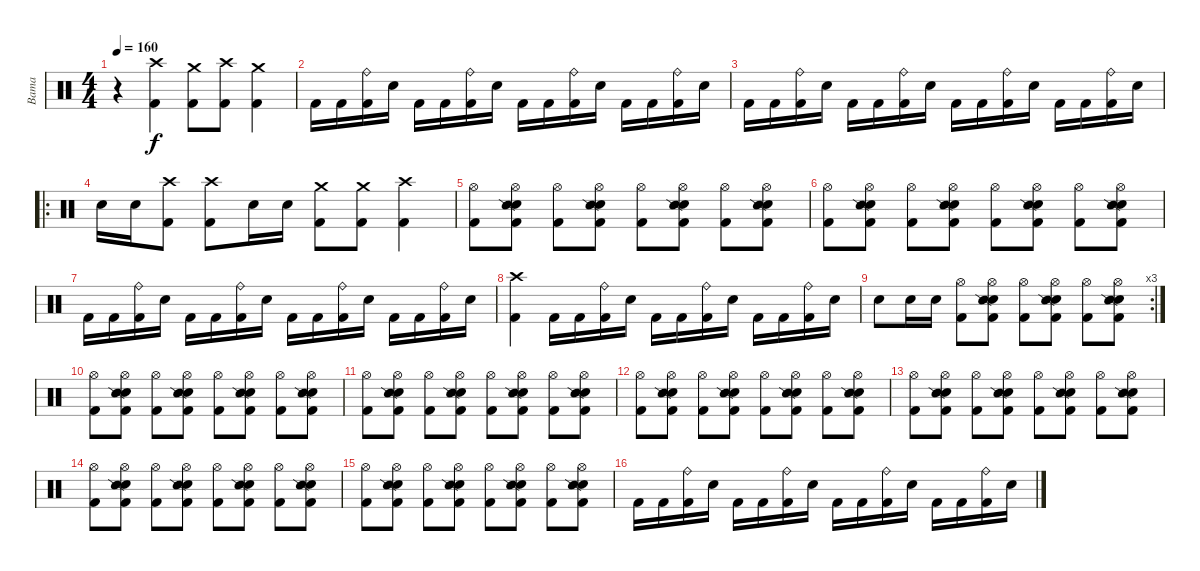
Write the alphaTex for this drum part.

\track ("Bama" "Bama") {instrument percussion}
\staff {score}
\articulation defaults
\ts (4 4)
\tempo 160
\clef neutral
\ks c
r.4{dy f} ("Crash high (hit)" "Kick (hit) 2").4 ("Crash medium (hit)" "Kick (hit) 2").8 ("Crash high (hit)" "Kick (hit) 2").8 ("Crash medium (hit)" "Kick (hit) 2").4 |
"Kick (hit) 2".16 "Kick (hit) 2".16 ("Ride (bell)" "Kick (hit) 2").16 "Electric Snare (hit)".16 "Kick (hit) 2".16 "Kick (hit) 2".16 ("Ride (bell)" "Kick (hit) 2").16 "Electric Snare (hit)".16 "Kick (hit) 2".16 "Kick (hit) 2".16 ("Ride (bell)" "Kick (hit) 2").16 "Electric Snare (hit)".16 "Kick (hit) 2".16 "Kick (hit) 2".16 ("Ride (bell)" "Kick (hit) 2").16 "Electric Snare (hit)".16 |
"Kick (hit) 2".16 "Kick (hit) 2".16 ("Ride (bell)" "Kick (hit) 2").16 "Electric Snare (hit)".16 "Kick (hit) 2".16 "Kick (hit) 2".16 ("Ride (bell)" "Kick (hit) 2").16 "Electric Snare (hit)".16 "Kick (hit) 2".16 "Kick (hit) 2".16 ("Ride (bell)" "Kick (hit) 2").16 "Electric Snare (hit)".16 "Kick (hit) 2".16 "Kick (hit) 2".16 ("Ride (bell)" "Kick (hit) 2").16 "Electric Snare (hit)".16 |
\ro "Electric Snare (hit)".16 "Electric Snare (hit)".16
("Crash high (hit)" "Kick (hit) 2").8 ("Crash high (hit)" "Kick (hit) 2").8 "Electric Snare (hit)".16 "Electric Snare (hit)".16 ("Crash medium (hit)" "Kick (hit) 2").8 ("Crash medium (hit)" "Kick (hit) 2").8 ("Crash high (hit)" "Kick (hit) 2").4 |
("Hi-Hat (open)" "Kick (hit) 2").8 ("Hi-Hat (open)" "Electric Snare (hit)" "Snare (side stick) 2" "Kick (hit) 2").8 ("Hi-Hat (open)" "Kick (hit) 2").8 ("Hi-Hat (open)" "Electric Snare (hit)" "Snare (side stick) 2" "Kick (hit) 2").8 ("Hi-Hat (open)" "Kick (hit) 2").8 ("Hi-Hat (open)" "Electric Snare (hit)" "Snare (side stick) 2" "Kick (hit) 2").8 ("Hi-Hat (open)" "Kick (hit) 2").8 ("Hi-Hat (open)" "Electric Snare (hit)" "Snare (side stick) 2" "Kick (hit) 2").8 |
("Hi-Hat (open)" "Kick (hit) 2").8 ("Hi-Hat (open)" "Electric Snare (hit)" "Snare (side stick) 2" "Kick (hit) 2").8 ("Hi-Hat (open)" "Kick (hit) 2").8 ("Hi-Hat (open)" "Electric Snare (hit)" "Snare (side stick) 2" "Kick (hit) 2").8 ("Hi-Hat (open)" "Kick (hit) 2").8 ("Hi-Hat (open)" "Electric Snare (hit)" "Snare (side stick) 2" "Kick (hit) 2").8 ("Hi-Hat (open)" "Kick (hit) 2").8 ("Hi-Hat (open)" "Electric Snare (hit)" "Snare (side stick) 2" "Kick (hit) 2").8 |
"Kick (hit) 2".16 "Kick (hit) 2".16 ("Ride (bell)" "Kick (hit) 2").16 "Electric Snare (hit)".16 "Kick (hit) 2".16 "Kick (hit) 2".16 ("Ride (bell)" "Kick (hit) 2").16 "Electric Snare (hit)".16 "Kick (hit) 2".16 "Kick (hit) 2".16 ("Ride (bell)" "Kick (hit) 2").16 "Electric Snare (hit)".16 "Kick (hit) 2".16 "Kick (hit) 2".16 ("Ride (bell)" "Kick (hit) 2").16 "Electric Snare (hit)".16 |
("Crash high (hit)" "Kick (hit) 2").4 "Kick (hit) 2".16 "Kick (hit) 2".16 ("Ride (bell)" "Kick (hit) 2").16 "Electric Snare (hit)".16 "Kick (hit) 2".16 "Kick (hit) 2".16 ("Ride (bell)" "Kick (hit) 2").16 "Electric Snare (hit)".16 "Kick (hit) 2".16 "Kick (hit) 2".16 ("Ride (bell)" "Kick (hit) 2").16 "Electric Snare (hit)".16 |
\rc 3 "Electric Snare (hit)".8 "Electric Snare (hit)".16 "Electric Snare (hit)".16
("Hi-Hat (open)" "Kick (hit) 2").8 ("Hi-Hat (open)" "Electric Snare (hit)" "Snare (side stick) 2" "Kick (hit) 2").8 ("Hi-Hat (open)" "Kick (hit) 2").8 ("Hi-Hat (open)" "Electric Snare (hit)" "Snare (side stick) 2" "Kick (hit) 2").8 ("Hi-Hat (open)" "Kick (hit) 2").8 ("Hi-Hat (open)" "Electric Snare (hit)" "Snare (side stick) 2" "Kick (hit) 2").8 |
("Hi-Hat (open)" "Kick (hit) 2").8 ("Hi-Hat (open)" "Electric Snare (hit)" "Snare (side stick) 2" "Kick (hit) 2").8 ("Hi-Hat (open)" "Kick (hit) 2").8 ("Hi-Hat (open)" "Electric Snare (hit)" "Snare (side stick) 2" "Kick (hit) 2").8 ("Hi-Hat (open)" "Kick (hit) 2").8 ("Hi-Hat (open)" "Electric Snare (hit)" "Snare (side stick) 2" "Kick (hit) 2").8 ("Hi-Hat (open)" "Kick (hit) 2").8 ("Hi-Hat (open)" "Electric Snare (hit)" "Snare (side stick) 2" "Kick (hit) 2").8 |
("Hi-Hat (open)" "Kick (hit) 2").8 ("Hi-Hat (open)" "Electric Snare (hit)" "Snare (side stick) 2" "Kick (hit) 2").8 ("Hi-Hat (open)" "Kick (hit) 2").8 ("Hi-Hat (open)" "Electric Snare (hit)" "Snare (side stick) 2" "Kick (hit) 2").8 ("Hi-Hat (open)" "Kick (hit) 2").8 ("Hi-Hat (open)" "Electric Snare (hit)" "Snare (side stick) 2" "Kick (hit) 2").8 ("Hi-Hat (open)" "Kick (hit) 2").8 ("Hi-Hat (open)" "Electric Snare (hit)" "Snare (side stick) 2" "Kick (hit) 2").8 |
("Hi-Hat (open)" "Kick (hit) 2").8 ("Hi-Hat (open)" "Electric Snare (hit)" "Snare (side stick) 2" "Kick (hit) 2").8 ("Hi-Hat (open)" "Kick (hit) 2").8 ("Hi-Hat (open)" "Electric Snare (hit)" "Snare (side stick) 2" "Kick (hit) 2").8 ("Hi-Hat (open)" "Kick (hit) 2").8 ("Hi-Hat (open)" "Electric Snare (hit)" "Snare (side stick) 2" "Kick (hit) 2").8 ("Hi-Hat (open)" "Kick (hit) 2").8 ("Hi-Hat (open)" "Electric Snare (hit)" "Snare (side stick) 2" "Kick (hit) 2").8 |
("Hi-Hat (open)" "Kick (hit) 2").8 ("Hi-Hat (open)" "Electric Snare (hit)" "Snare (side stick) 2" "Kick (hit) 2").8 ("Hi-Hat (open)" "Kick (hit) 2").8 ("Hi-Hat (open)" "Electric Snare (hit)" "Snare (side stick) 2" "Kick (hit) 2").8 ("Hi-Hat (open)" "Kick (hit) 2").8 ("Hi-Hat (open)" "Electric Snare (hit)" "Snare (side stick) 2" "Kick (hit) 2").8 ("Hi-Hat (open)" "Kick (hit) 2").8 ("Hi-Hat (open)" "Electric Snare (hit)" "Snare (side stick) 2" "Kick (hit) 2").8 |
("Hi-Hat (open)" "Kick (hit) 2").8 ("Hi-Hat (open)" "Electric Snare (hit)" "Snare (side stick) 2" "Kick (hit) 2").8 ("Hi-Hat (open)" "Kick (hit) 2").8 ("Hi-Hat (open)" "Electric Snare (hit)" "Snare (side stick) 2" "Kick (hit) 2").8 ("Hi-Hat (open)" "Kick (hit) 2").8 ("Hi-Hat (open)" "Electric Snare (hit)" "Snare (side stick) 2" "Kick (hit) 2").8 ("Hi-Hat (open)" "Kick (hit) 2").8 ("Hi-Hat (open)" "Electric Snare (hit)" "Snare (side stick) 2" "Kick (hit) 2").8 |
("Hi-Hat (open)" "Kick (hit) 2").8 ("Hi-Hat (open)" "Electric Snare (hit)" "Snare (side stick) 2" "Kick (hit) 2").8 ("Hi-Hat (open)" "Kick (hit) 2").8 ("Hi-Hat (open)" "Electric Snare (hit)" "Snare (side stick) 2" "Kick (hit) 2").8 ("Hi-Hat (open)" "Kick (hit) 2").8 ("Hi-Hat (open)" "Electric Snare (hit)" "Snare (side stick) 2" "Kick (hit) 2").8 ("Hi-Hat (open)" "Kick (hit) 2").8 ("Hi-Hat (open)" "Electric Snare (hit)" "Snare (side stick) 2" "Kick (hit) 2").8 |
"Kick (hit) 2".16 "Kick (hit) 2".16 ("Ride (bell)" "Kick (hit) 2").16 "Electric Snare (hit)".16 "Kick (hit) 2".16 "Kick (hit) 2".16 ("Ride (bell)" "Kick (hit) 2").16 "Electric Snare (hit)".16 "Kick (hit) 2".16 "Kick (hit) 2".16 ("Ride (bell)" "Kick (hit) 2").16 "Electric Snare (hit)".16 "Kick (hit) 2".16 "Kick (hit) 2".16 ("Ride (bell)" "Kick (hit) 2").16 "Electric Snare (hit)".16
